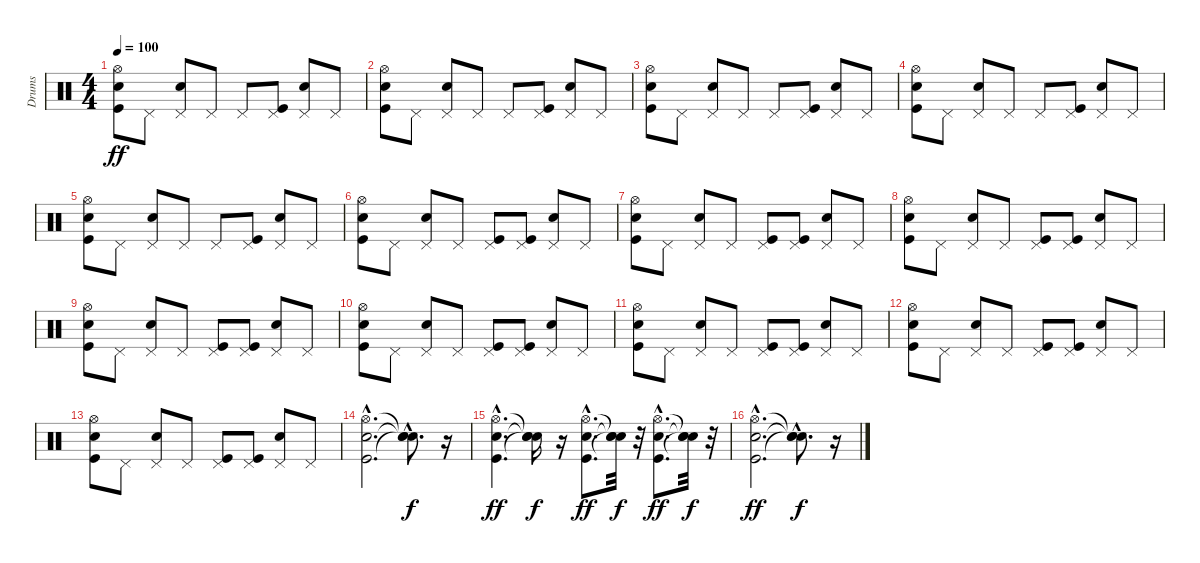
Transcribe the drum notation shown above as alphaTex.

\track ("Drums" "Drums") {instrument percussion}
\staff {score}
\articulation defaults
\ts (4 4)
\tempo 100
\clef neutral
\ks c
("Kick (hit)" "Electric Snare (hit)" "Hi-Hat (open)").8{dy ff} "Pedal Hi-Hat (hit)".8 ("Electric Snare (hit)" "Pedal Hi-Hat (hit)").8 "Pedal Hi-Hat (hit)".8 "Pedal Hi-Hat (hit)".8 ("Kick (hit)" "Pedal Hi-Hat (hit)").8 ("Electric Snare (hit)" "Pedal Hi-Hat (hit)").8 "Pedal Hi-Hat (hit)".8 |
("Kick (hit)" "Electric Snare (hit)" "Hi-Hat (open)").8 "Pedal Hi-Hat (hit)".8 ("Electric Snare (hit)" "Pedal Hi-Hat (hit)").8 "Pedal Hi-Hat (hit)".8 "Pedal Hi-Hat (hit)".8 ("Kick (hit)" "Pedal Hi-Hat (hit)").8 ("Electric Snare (hit)" "Pedal Hi-Hat (hit)").8 "Pedal Hi-Hat (hit)".8 |
("Kick (hit)" "Electric Snare (hit)" "Hi-Hat (open)").8 "Pedal Hi-Hat (hit)".8 ("Electric Snare (hit)" "Pedal Hi-Hat (hit)").8 "Pedal Hi-Hat (hit)".8 "Pedal Hi-Hat (hit)".8 ("Kick (hit)" "Pedal Hi-Hat (hit)").8 ("Electric Snare (hit)" "Pedal Hi-Hat (hit)").8 "Pedal Hi-Hat (hit)".8 |
("Kick (hit)" "Electric Snare (hit)" "Hi-Hat (open)").8 "Pedal Hi-Hat (hit)".8 ("Electric Snare (hit)" "Pedal Hi-Hat (hit)").8 "Pedal Hi-Hat (hit)".8 "Pedal Hi-Hat (hit)".8 ("Kick (hit)" "Pedal Hi-Hat (hit)").8 ("Electric Snare (hit)" "Pedal Hi-Hat (hit)").8 "Pedal Hi-Hat (hit)".8 |
("Kick (hit)" "Electric Snare (hit)" "Hi-Hat (open)").8 "Pedal Hi-Hat (hit)".8 ("Electric Snare (hit)" "Pedal Hi-Hat (hit)").8 "Pedal Hi-Hat (hit)".8 "Pedal Hi-Hat (hit)".8 ("Kick (hit)" "Pedal Hi-Hat (hit)").8 ("Electric Snare (hit)" "Pedal Hi-Hat (hit)").8 "Pedal Hi-Hat (hit)".8 |
("Kick (hit)" "Electric Snare (hit)" "Hi-Hat (open)").8 "Pedal Hi-Hat (hit)".8 ("Electric Snare (hit)" "Pedal Hi-Hat (hit)").8 "Pedal Hi-Hat (hit)".8 ("Kick (hit)" "Pedal Hi-Hat (hit)").8 ("Kick (hit)" "Pedal Hi-Hat (hit)").8 ("Electric Snare (hit)" "Pedal Hi-Hat (hit)").8 "Pedal Hi-Hat (hit)".8 |
("Kick (hit)" "Electric Snare (hit)" "Hi-Hat (open)").8 "Pedal Hi-Hat (hit)".8 ("Electric Snare (hit)" "Pedal Hi-Hat (hit)").8 "Pedal Hi-Hat (hit)".8 ("Kick (hit)" "Pedal Hi-Hat (hit)").8 ("Kick (hit)" "Pedal Hi-Hat (hit)").8 ("Electric Snare (hit)" "Pedal Hi-Hat (hit)").8 "Pedal Hi-Hat (hit)".8 |
("Kick (hit)" "Electric Snare (hit)" "Hi-Hat (open)").8 "Pedal Hi-Hat (hit)".8 ("Electric Snare (hit)" "Pedal Hi-Hat (hit)").8 "Pedal Hi-Hat (hit)".8 ("Kick (hit)" "Pedal Hi-Hat (hit)").8 ("Kick (hit)" "Pedal Hi-Hat (hit)").8 ("Electric Snare (hit)" "Pedal Hi-Hat (hit)").8 "Pedal Hi-Hat (hit)".8 |
("Kick (hit)" "Electric Snare (hit)" "Hi-Hat (open)").8 "Pedal Hi-Hat (hit)".8 ("Electric Snare (hit)" "Pedal Hi-Hat (hit)").8 "Pedal Hi-Hat (hit)".8 ("Kick (hit)" "Pedal Hi-Hat (hit)").8 ("Kick (hit)" "Pedal Hi-Hat (hit)").8 ("Electric Snare (hit)" "Pedal Hi-Hat (hit)").8 "Pedal Hi-Hat (hit)".8 |
("Kick (hit)" "Electric Snare (hit)" "Hi-Hat (open)").8 "Pedal Hi-Hat (hit)".8 ("Electric Snare (hit)" "Pedal Hi-Hat (hit)").8 "Pedal Hi-Hat (hit)".8 ("Kick (hit)" "Pedal Hi-Hat (hit)").8 ("Kick (hit)" "Pedal Hi-Hat (hit)").8 ("Electric Snare (hit)" "Pedal Hi-Hat (hit)").8 "Pedal Hi-Hat (hit)".8 |
("Kick (hit)" "Electric Snare (hit)" "Hi-Hat (open)").8 "Pedal Hi-Hat (hit)".8 ("Electric Snare (hit)" "Pedal Hi-Hat (hit)").8 "Pedal Hi-Hat (hit)".8 ("Kick (hit)" "Pedal Hi-Hat (hit)").8 ("Kick (hit)" "Pedal Hi-Hat (hit)").8 ("Electric Snare (hit)" "Pedal Hi-Hat (hit)").8 "Pedal Hi-Hat (hit)".8 |
("Kick (hit)" "Electric Snare (hit)" "Hi-Hat (open)").8 "Pedal Hi-Hat (hit)".8 ("Electric Snare (hit)" "Pedal Hi-Hat (hit)").8 "Pedal Hi-Hat (hit)".8 ("Kick (hit)" "Pedal Hi-Hat (hit)").8 ("Kick (hit)" "Pedal Hi-Hat (hit)").8 ("Electric Snare (hit)" "Pedal Hi-Hat (hit)").8 "Pedal Hi-Hat (hit)".8 |
("Kick (hit)" "Electric Snare (hit)" "Hi-Hat (open)").8 "Pedal Hi-Hat (hit)".8 ("Electric Snare (hit)" "Pedal Hi-Hat (hit)").8 "Pedal Hi-Hat (hit)".8 ("Kick (hit)" "Pedal Hi-Hat (hit)").8 ("Kick (hit)" "Pedal Hi-Hat (hit)").8 ("Electric Snare (hit)" "Pedal Hi-Hat (hit)").8 "Pedal Hi-Hat (hit)".8 |
("Kick (hit)"{hac} "Electric Snare (hit)"{hac} "Hi-Hat (open)"{hac}).2{d} ("Snare (hit)"{hac t} "Snare (hit)"{hac t} "Snare (hit)"{hac t}).8{d dy f} r.16 |
("Kick (hit)"{hac} "Electric Snare (hit)"{hac} "Hi-Hat (open)"{hac}).4{d dy ff} ("Snare (hit)"{t} "Snare (hit)"{t} "Snare (hit)"{t}).16{dy f} r.16 ("Kick (hit)"{hac} "Electric Snare (hit)"{hac} "Hi-Hat (open)"{hac}).8{d dy ff} ("Snare (hit)"{t} "Snare (hit)"{t} "Snare (hit)"{t}).32{dy f} r.32 ("Kick (hit)"{hac} "Electric Snare (hit)"{hac} "Hi-Hat (open)"{hac}).8{d dy ff} ("Snare (hit)"{t} "Snare (hit)"{t} "Snare (hit)"{t}).32{dy f} r.32 |
("Kick (hit)"{hac} "Electric Snare (hit)"{hac} "Hi-Hat (open)"{hac}).2{d dy ff} ("Snare (hit)"{hac t} "Snare (hit)"{hac t} "Snare (hit)"{hac t}).8{d dy f} r.16
